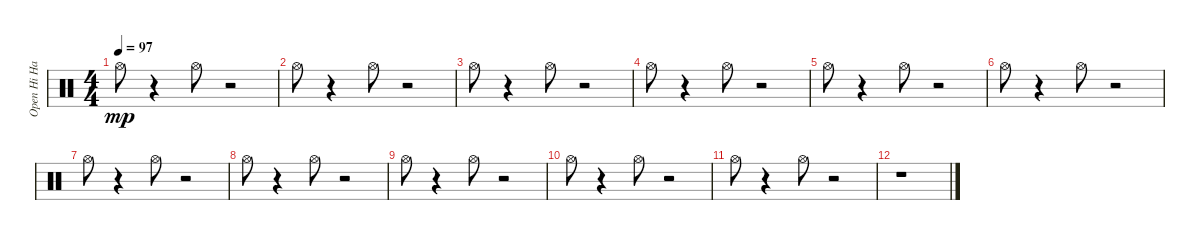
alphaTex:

\track ("Open Hi Hat" "Open Hi Ha") {instrument percussion}
\staff {score}
\articulation defaults
\ts (4 4)
\tempo 97
\clef neutral
\ks c "Hi-Hat (open)".8{dy mp}
r.4 "Hi-Hat (open)".8 r.2 |
"Hi-Hat (open)".8 r.4 "Hi-Hat (open)".8 r.2 |
"Hi-Hat (open)".8 r.4 "Hi-Hat (open)".8 r.2 |
"Hi-Hat (open)".8 r.4 "Hi-Hat (open)".8 r.2 |
"Hi-Hat (open)".8 r.4 "Hi-Hat (open)".8 r.2 |
"Hi-Hat (open)".8 r.4 "Hi-Hat (open)".8 r.2 |
"Hi-Hat (open)".8 r.4 "Hi-Hat (open)".8 r.2 |
"Hi-Hat (open)".8 r.4 "Hi-Hat (open)".8 r.2 |
"Hi-Hat (open)".8 r.4 "Hi-Hat (open)".8 r.2 |
"Hi-Hat (open)".8 r.4 "Hi-Hat (open)".8 r.2 |
"Hi-Hat (open)".8 r.4 "Hi-Hat (open)".8 r.2 |
r.1
